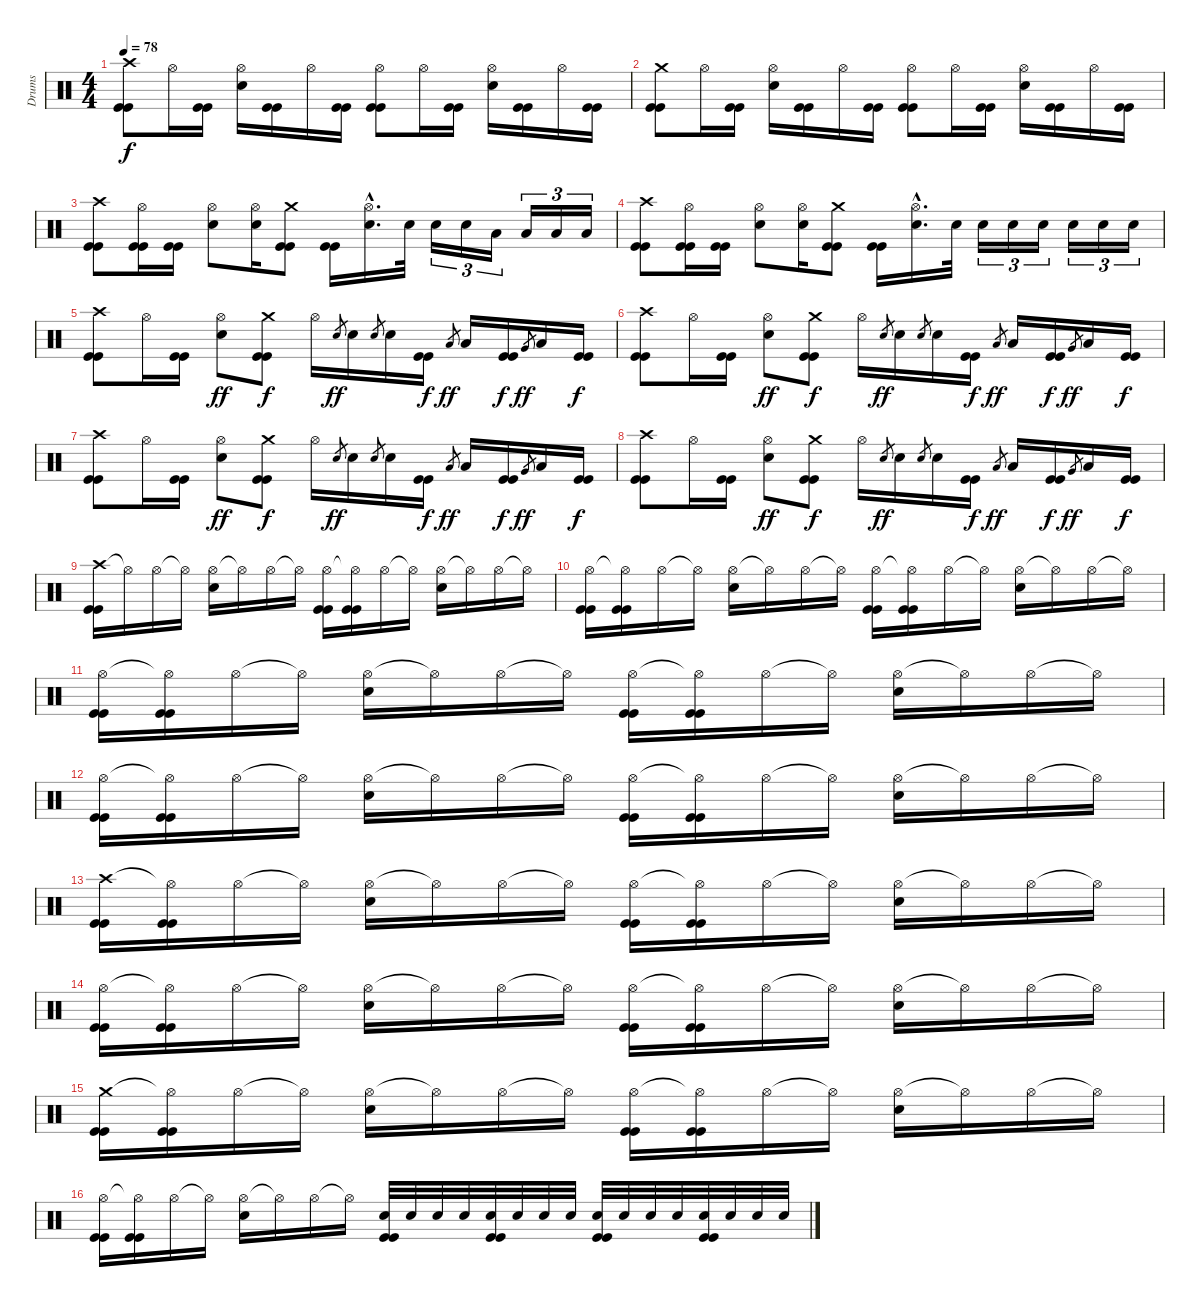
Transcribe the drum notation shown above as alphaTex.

\track ("Drums" "Drums") {instrument percussion}
\staff {score}
\articulation defaults
\ts (4 4)
\tempo 78
\clef neutral
\ks c
("Crash high (hit)" "Kick (hit)" "Kick (hit)").8{dy f} "Hi-Hat (open)".16 ("Kick (hit)" "Kick (hit)").16 ("Hi-Hat (open)" "Electric Snare (hit)").16 ("Kick (hit)" "Kick (hit)").16 "Hi-Hat (open)".16 ("Kick (hit)" "Kick (hit)").16 ("Hi-Hat (open)" "Kick (hit)" "Kick (hit)").8 "Hi-Hat (open)".16 ("Kick (hit)" "Kick (hit)").16 ("Hi-Hat (open)" "Electric Snare (hit)").16 ("Kick (hit)" "Kick (hit)").16 "Hi-Hat (open)".16 ("Kick (hit)" "Kick (hit)").16 |
("Crash medium (hit)" "Kick (hit)" "Kick (hit)").8 "Hi-Hat (open)".16 ("Kick (hit)" "Kick (hit)").16 ("Hi-Hat (open)" "Electric Snare (hit)").16 ("Kick (hit)" "Kick (hit)").16 "Hi-Hat (open)".16 ("Kick (hit)" "Kick (hit)").16 ("Hi-Hat (open)" "Kick (hit)" "Kick (hit)").8 "Hi-Hat (open)".16 ("Kick (hit)" "Kick (hit)").16 ("Hi-Hat (open)" "Electric Snare (hit)").16 ("Kick (hit)" "Kick (hit)").16 "Hi-Hat (open)".16 ("Kick (hit)" "Kick (hit)").16 |
("Crash high (hit)" "Kick (hit)" "Kick (hit)").8 ("Hi-Hat (open)" "Kick (hit)" "Kick (hit)").16 ("Kick (hit)" "Kick (hit)").16 ("Hi-Hat (open)" "Electric Snare (hit)").8 ("Hi-Hat (open)" "Electric Snare (hit)").16 ("Crash medium (hit)" "Kick (hit)" "Kick (hit)").8 ("Kick (hit)" "Kick (hit)").16 ("Hi-Hat (open)"{hac} "Electric Snare (hit)"{hac}).16{d} "Electric Snare (hit)".32 "Electric Snare (hit)".16{tu (3 2)} "Electric Snare (hit)".16{tu (3 2)} "Low Tom (hit)".16{tu (3 2)} "Low Floor Tom (hit)".16{tu (3 2)} "Low Floor Tom (hit)".16{tu (3 2)} "Low Floor Tom (hit)".16{tu (3 2)} |
("Crash high (hit)" "Kick (hit)" "Kick (hit)").8 ("Hi-Hat (open)" "Kick (hit)" "Kick (hit)").16 ("Kick (hit)" "Kick (hit)").16 ("Hi-Hat (open)" "Electric Snare (hit)").8 ("Hi-Hat (open)" "Electric Snare (hit)").16 ("Crash medium (hit)" "Kick (hit)" "Kick (hit)").8 ("Kick (hit)" "Kick (hit)").16 ("Hi-Hat (open)"{hac} "Electric Snare (hit)"{hac}).16{d} "Electric Snare (hit)".32 "Electric Snare (hit)".16{tu (3 2)} "Electric Snare (hit)".16{tu (3 2)} "Electric Snare (hit)".16{tu (3 2)} "Electric Snare (hit)".16{tu (3 2)} "Electric Snare (hit)".16{tu (3 2)} "Electric Snare (hit)".16{tu (3 2)} |
("Crash high (hit)" "Kick (hit)" "Kick (hit)").8 "Hi-Hat (open)".16 ("Kick (hit)" "Kick (hit)").16 ("Hi-Hat (open)" "Electric Snare (hit)").8{dy ff} ("Crash medium (hit)" "Kick (hit)" "Kick (hit)").8{dy f} "Hi-Hat (open)".16 "Electric Snare (hit)".8{gr dy ff} "Electric Snare (hit)".16 "Electric Snare (hit)".8{gr} "Electric Snare (hit)".16 ("Kick (hit)" "Kick (hit)").16{dy f} "Low Tom (hit)".8{gr dy ff} "Low Tom (hit)".16 ("Kick (hit)" "Kick (hit)").16{dy f} "Very Low Tom (hit)".8{gr dy ff} "Low Floor Tom (hit)".16 ("Kick (hit)" "Kick (hit)").16{dy f} |
("Crash high (hit)" "Kick (hit)" "Kick (hit)").8 "Hi-Hat (open)".16 ("Kick (hit)" "Kick (hit)").16 ("Hi-Hat (open)" "Electric Snare (hit)").8{dy ff} ("Crash medium (hit)" "Kick (hit)" "Kick (hit)").8{dy f} "Hi-Hat (open)".16 "Electric Snare (hit)".8{gr dy ff} "Electric Snare (hit)".16 "Electric Snare (hit)".8{gr} "Electric Snare (hit)".16 ("Kick (hit)" "Kick (hit)").16{dy f} "Low Tom (hit)".8{gr dy ff} "Low Tom (hit)".16 ("Kick (hit)" "Kick (hit)").16{dy f} "Very Low Tom (hit)".8{gr dy ff} "Low Floor Tom (hit)".16 ("Kick (hit)" "Kick (hit)").16{dy f} |
("Crash high (hit)" "Kick (hit)" "Kick (hit)").8 "Hi-Hat (open)".16 ("Kick (hit)" "Kick (hit)").16 ("Hi-Hat (open)" "Electric Snare (hit)").8{dy ff} ("Crash medium (hit)" "Kick (hit)" "Kick (hit)").8{dy f} "Hi-Hat (open)".16 "Electric Snare (hit)".8{gr dy ff} "Electric Snare (hit)".16 "Electric Snare (hit)".8{gr} "Electric Snare (hit)".16 ("Kick (hit)" "Kick (hit)").16{dy f} "Low Tom (hit)".8{gr dy ff} "Low Tom (hit)".16 ("Kick (hit)" "Kick (hit)").16{dy f} "Very Low Tom (hit)".8{gr dy ff} "Low Floor Tom (hit)".16 ("Kick (hit)" "Kick (hit)").16{dy f} |
("Crash high (hit)" "Kick (hit)" "Kick (hit)").8 "Hi-Hat (open)".16 ("Kick (hit)" "Kick (hit)").16 ("Hi-Hat (open)" "Electric Snare (hit)").8{dy ff} ("Crash medium (hit)" "Kick (hit)" "Kick (hit)").8{dy f} "Hi-Hat (open)".16 "Electric Snare (hit)".8{gr dy ff} "Electric Snare (hit)".16 "Electric Snare (hit)".8{gr} "Electric Snare (hit)".16 ("Kick (hit)" "Kick (hit)").16{dy f} "Low Tom (hit)".8{gr dy ff} "Low Tom (hit)".16 ("Kick (hit)" "Kick (hit)").16{dy f} "Very Low Tom (hit)".8{gr dy ff} "Low Floor Tom (hit)".16 ("Kick (hit)" "Kick (hit)").16{dy f} |
("Crash high (hit)" "Kick (hit)" "Kick (hit)").16 "Hi-Hat (open)"{t}.16 "Hi-Hat (open)".16 "Hi-Hat (open)"{t}.16 ("Hi-Hat (open)" "Electric Snare (hit)").16 "Hi-Hat (open)"{t}.16 "Hi-Hat (open)".16 "Hi-Hat (open)"{t}.16 ("Hi-Hat (open)" "Kick (hit)" "Kick (hit)").16 ("Hi-Hat (open)"{t} "Kick (hit)" "Kick (hit)").16 "Hi-Hat (open)".16 "Hi-Hat (open)"{t}.16 ("Hi-Hat (open)" "Electric Snare (hit)").16 "Hi-Hat (open)"{t}.16 "Hi-Hat (open)".16 "Hi-Hat (open)"{t}.16 |
("Hi-Hat (open)" "Kick (hit)" "Kick (hit)").16 ("Hi-Hat (open)"{t} "Kick (hit)" "Kick (hit)").16 "Hi-Hat (open)".16 "Hi-Hat (open)"{t}.16 ("Hi-Hat (open)" "Electric Snare (hit)").16 "Hi-Hat (open)"{t}.16 "Hi-Hat (open)".16 "Hi-Hat (open)"{t}.16 ("Hi-Hat (open)" "Kick (hit)" "Kick (hit)").16 ("Hi-Hat (open)"{t} "Kick (hit)" "Kick (hit)").16 "Hi-Hat (open)".16 "Hi-Hat (open)"{t}.16 ("Hi-Hat (open)" "Electric Snare (hit)").16 "Hi-Hat (open)"{t}.16 "Hi-Hat (open)".16 "Hi-Hat (open)"{t}.16 |
("Hi-Hat (open)" "Kick (hit)" "Kick (hit)").16 ("Hi-Hat (open)"{t} "Kick (hit)" "Kick (hit)").16 "Hi-Hat (open)".16 "Hi-Hat (open)"{t}.16 ("Hi-Hat (open)" "Electric Snare (hit)").16 "Hi-Hat (open)"{t}.16 "Hi-Hat (open)".16 "Hi-Hat (open)"{t}.16 ("Hi-Hat (open)" "Kick (hit)" "Kick (hit)").16 ("Hi-Hat (open)"{t} "Kick (hit)" "Kick (hit)").16 "Hi-Hat (open)".16 "Hi-Hat (open)"{t}.16 ("Hi-Hat (open)" "Electric Snare (hit)").16 "Hi-Hat (open)"{t}.16 "Hi-Hat (open)".16 "Hi-Hat (open)"{t}.16 |
("Hi-Hat (open)" "Kick (hit)" "Kick (hit)").16 ("Hi-Hat (open)"{t} "Kick (hit)" "Kick (hit)").16 "Hi-Hat (open)".16 "Hi-Hat (open)"{t}.16 ("Hi-Hat (open)" "Electric Snare (hit)").16 "Hi-Hat (open)"{t}.16 "Hi-Hat (open)".16 "Hi-Hat (open)"{t}.16 ("Hi-Hat (open)" "Kick (hit)" "Kick (hit)").16 ("Hi-Hat (open)"{t} "Kick (hit)" "Kick (hit)").16 "Hi-Hat (open)".16 "Hi-Hat (open)"{t}.16 ("Hi-Hat (open)" "Electric Snare (hit)").16 "Hi-Hat (open)"{t}.16 "Hi-Hat (open)".16 "Hi-Hat (open)"{t}.16 |
("Crash high (hit)" "Kick (hit)" "Kick (hit)").16 ("Hi-Hat (open)"{t} "Kick (hit)" "Kick (hit)").16 "Hi-Hat (open)".16 "Hi-Hat (open)"{t}.16 ("Hi-Hat (open)" "Electric Snare (hit)").16 "Hi-Hat (open)"{t}.16 "Hi-Hat (open)".16 "Hi-Hat (open)"{t}.16 ("Hi-Hat (open)" "Kick (hit)" "Kick (hit)").16 ("Hi-Hat (open)"{t} "Kick (hit)" "Kick (hit)").16 "Hi-Hat (open)".16 "Hi-Hat (open)"{t}.16 ("Hi-Hat (open)" "Electric Snare (hit)").16 "Hi-Hat (open)"{t}.16 "Hi-Hat (open)".16 "Hi-Hat (open)"{t}.16 |
("Hi-Hat (open)" "Kick (hit)" "Kick (hit)").16 ("Hi-Hat (open)"{t} "Kick (hit)" "Kick (hit)").16 "Hi-Hat (open)".16 "Hi-Hat (open)"{t}.16 ("Hi-Hat (open)" "Electric Snare (hit)").16 "Hi-Hat (open)"{t}.16 "Hi-Hat (open)".16 "Hi-Hat (open)"{t}.16 ("Hi-Hat (open)" "Kick (hit)" "Kick (hit)").16 ("Hi-Hat (open)"{t} "Kick (hit)" "Kick (hit)").16 "Hi-Hat (open)".16 "Hi-Hat (open)"{t}.16 ("Hi-Hat (open)" "Electric Snare (hit)").16 "Hi-Hat (open)"{t}.16 "Hi-Hat (open)".16 "Hi-Hat (open)"{t}.16 |
("Crash medium (hit)" "Kick (hit)" "Kick (hit)").16 ("Hi-Hat (open)"{t} "Kick (hit)" "Kick (hit)").16 "Hi-Hat (open)".16 "Hi-Hat (open)"{t}.16 ("Hi-Hat (open)" "Electric Snare (hit)").16 "Hi-Hat (open)"{t}.16 "Hi-Hat (open)".16 "Hi-Hat (open)"{t}.16 ("Hi-Hat (open)" "Kick (hit)" "Kick (hit)").16 ("Hi-Hat (open)"{t} "Kick (hit)" "Kick (hit)").16 "Hi-Hat (open)".16 "Hi-Hat (open)"{t}.16 ("Hi-Hat (open)" "Electric Snare (hit)").16 "Hi-Hat (open)"{t}.16 "Hi-Hat (open)".16 "Hi-Hat (open)"{t}.16 |
("Hi-Hat (open)" "Kick (hit)" "Kick (hit)").16 ("Hi-Hat (open)"{t} "Kick (hit)" "Kick (hit)").16 "Hi-Hat (open)".16 "Hi-Hat (open)"{t}.16 ("Hi-Hat (open)" "Electric Snare (hit)").16 "Hi-Hat (open)"{t}.16 "Hi-Hat (open)".16 "Hi-Hat (open)"{t}.16 ("Electric Snare (hit)" "Kick (hit)" "Kick (hit)").32 "Electric Snare (hit)".32 "Electric Snare (hit)".32 "Electric Snare (hit)".32 ("Electric Snare (hit)" "Kick (hit)" "Kick (hit)").32 "Electric Snare (hit)".32 "Electric Snare (hit)".32 "Electric Snare (hit)".32 ("Electric Snare (hit)" "Kick (hit)" "Kick (hit)").32 "Electric Snare (hit)".32 "Electric Snare (hit)".32 "Electric Snare (hit)".32 ("Electric Snare (hit)" "Kick (hit)" "Kick (hit)").32 "Electric Snare (hit)".32 "Electric Snare (hit)".32 "Electric Snare (hit)".32
